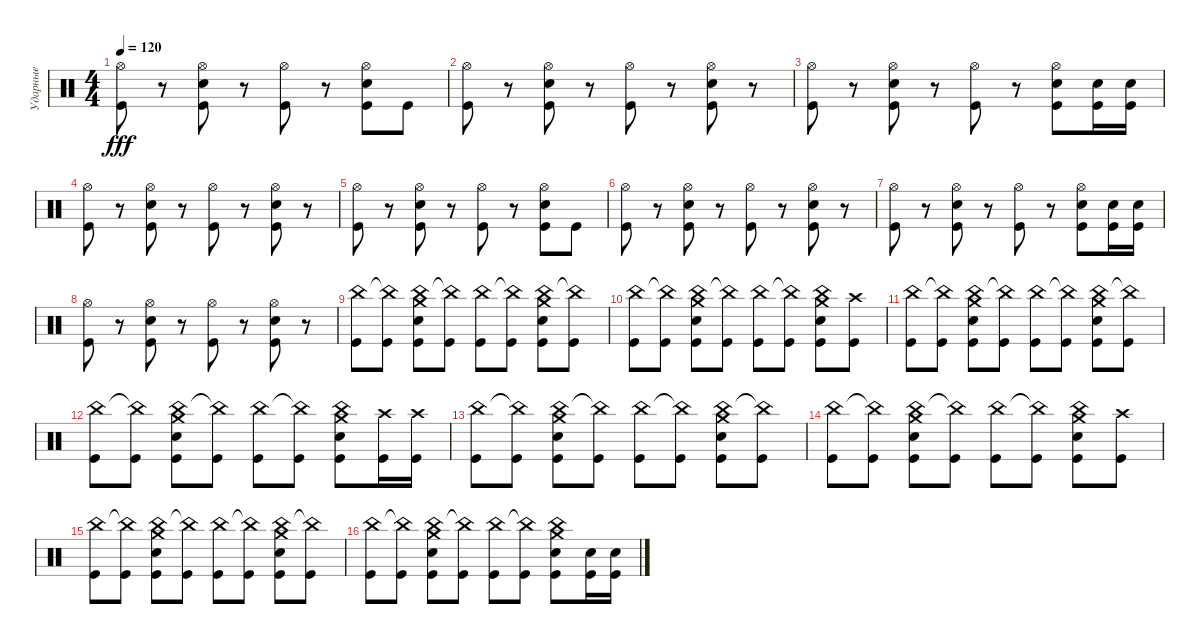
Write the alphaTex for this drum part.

\track ("Ударные" "Ударные") {instrument percussion}
\staff {score}
\articulation defaults
\ts (4 4)
\tempo 120
\clef neutral
\ks c
("Hi-Hat (open)" "Kick (hit)").8{dy fff} r.8 ("Hi-Hat (open)" "Snare (hit) 2" "Kick (hit)").8 r.8 ("Hi-Hat (open)" "Kick (hit)").8 r.8 ("Hi-Hat (open)" "Snare (hit) 2" "Kick (hit)").8 "Kick (hit)".8 |
("Hi-Hat (open)" "Kick (hit)").8 r.8 ("Hi-Hat (open)" "Snare (hit) 2" "Kick (hit)").8 r.8 ("Hi-Hat (open)" "Kick (hit)").8 r.8 ("Hi-Hat (open)" "Snare (hit) 2" "Kick (hit)").8 r.8 |
("Hi-Hat (open)" "Kick (hit)").8 r.8 ("Hi-Hat (open)" "Snare (hit) 2" "Kick (hit)").8 r.8 ("Hi-Hat (open)" "Kick (hit)").8 r.8 ("Hi-Hat (open)" "Snare (hit) 2" "Kick (hit)").8 ("Snare (hit) 2" "Kick (hit)").16 ("Snare (hit) 2" "Kick (hit)").16 |
("Hi-Hat (open)" "Kick (hit)").8 r.8 ("Hi-Hat (open)" "Snare (hit) 2" "Kick (hit)").8 r.8 ("Hi-Hat (open)" "Kick (hit)").8 r.8 ("Hi-Hat (open)" "Snare (hit) 2" "Kick (hit)").8 r.8 |
("Hi-Hat (open)" "Kick (hit)").8 r.8 ("Hi-Hat (open)" "Snare (hit) 2" "Kick (hit)").8 r.8 ("Hi-Hat (open)" "Kick (hit)").8 r.8 ("Hi-Hat (open)" "Snare (hit) 2" "Kick (hit)").8 "Kick (hit)".8 |
("Hi-Hat (open)" "Kick (hit)").8 r.8 ("Hi-Hat (open)" "Snare (hit) 2" "Kick (hit)").8 r.8 ("Hi-Hat (open)" "Kick (hit)").8 r.8 ("Hi-Hat (open)" "Snare (hit) 2" "Kick (hit)").8 r.8 |
("Hi-Hat (open)" "Kick (hit)").8 r.8 ("Hi-Hat (open)" "Snare (hit) 2" "Kick (hit)").8 r.8 ("Hi-Hat (open)" "Kick (hit)").8 r.8 ("Hi-Hat (open)" "Snare (hit) 2" "Kick (hit)").8 ("Snare (hit) 2" "Kick (hit)").16 ("Snare (hit) 2" "Kick (hit)").16 |
("Hi-Hat (open)" "Kick (hit)").8 r.8 ("Hi-Hat (open)" "Snare (hit) 2" "Kick (hit)").8 r.8 ("Hi-Hat (open)" "Kick (hit)").8 r.8 ("Hi-Hat (open)" "Snare (hit) 2" "Kick (hit)").8 r.8 |
("China (hit)" "Kick (hit)").8 ("China (hit)"{t} "Kick (hit)").8 ("China (hit)" "Crash medium (hit)" "Snare (hit) 2" "Kick (hit)").8 ("China (hit)"{t} "Kick (hit)").8 ("China (hit)" "Kick (hit)").8 ("China (hit)"{t} "Kick (hit)").8 ("China (hit)" "Crash medium (hit)" "Snare (hit) 2" "Kick (hit)").8 ("China (hit)"{t} "Kick (hit)").8 |
("China (hit)" "Kick (hit)").8 ("China (hit)"{t} "Kick (hit)").8 ("China (hit)" "Crash medium (hit)" "Snare (hit) 2" "Kick (hit)").8 ("China (hit)"{t} "Kick (hit)").8 ("China (hit)" "Kick (hit)").8 ("China (hit)"{t} "Kick (hit)").8 ("China (hit)" "Crash medium (hit)" "Snare (hit) 2" "Kick (hit)").8 ("Crash high (hit)" "Kick (hit)").8 |
("China (hit)" "Kick (hit)").8 ("China (hit)"{t} "Kick (hit)").8 ("China (hit)" "Crash medium (hit)" "Snare (hit) 2" "Kick (hit)").8 ("China (hit)"{t} "Kick (hit)").8 ("China (hit)" "Kick (hit)").8 ("China (hit)"{t} "Kick (hit)").8 ("China (hit)" "Crash medium (hit)" "Snare (hit) 2" "Kick (hit)").8 ("China (hit)"{t} "Kick (hit)").8 |
("China (hit)" "Kick (hit)").8 ("China (hit)"{t} "Kick (hit)").8 ("China (hit)" "Crash medium (hit)" "Snare (hit) 2" "Kick (hit)").8 ("China (hit)"{t} "Kick (hit)").8 ("China (hit)" "Kick (hit)").8 ("China (hit)"{t} "Kick (hit)").8 ("China (hit)" "Crash medium (hit)" "Snare (hit) 2" "Kick (hit)").8 ("Crash high (hit)" "Kick (hit)").16 ("Crash high (hit)" "Kick (hit)").16 |
("China (hit)" "Kick (hit)").8 ("China (hit)"{t} "Kick (hit)").8 ("China (hit)" "Crash medium (hit)" "Snare (hit) 2" "Kick (hit)").8 ("China (hit)"{t} "Kick (hit)").8 ("China (hit)" "Kick (hit)").8 ("China (hit)"{t} "Kick (hit)").8 ("China (hit)" "Crash medium (hit)" "Snare (hit) 2" "Kick (hit)").8 ("China (hit)"{t} "Kick (hit)").8 |
("China (hit)" "Kick (hit)").8 ("China (hit)"{t} "Kick (hit)").8 ("China (hit)" "Crash medium (hit)" "Snare (hit) 2" "Kick (hit)").8 ("China (hit)"{t} "Kick (hit)").8 ("China (hit)" "Kick (hit)").8 ("China (hit)"{t} "Kick (hit)").8 ("China (hit)" "Crash medium (hit)" "Snare (hit) 2" "Kick (hit)").8 ("Crash high (hit)" "Kick (hit)").8 |
("China (hit)" "Kick (hit)").8 ("China (hit)"{t} "Kick (hit)").8 ("China (hit)" "Crash medium (hit)" "Snare (hit) 2" "Kick (hit)").8 ("China (hit)"{t} "Kick (hit)").8 ("China (hit)" "Kick (hit)").8 ("China (hit)"{t} "Kick (hit)").8 ("China (hit)" "Crash medium (hit)" "Snare (hit) 2" "Kick (hit)").8 ("China (hit)"{t} "Kick (hit)").8 |
("China (hit)" "Kick (hit)").8 ("China (hit)"{t} "Kick (hit)").8 ("China (hit)" "Crash medium (hit)" "Snare (hit) 2" "Kick (hit)").8 ("China (hit)"{t} "Kick (hit)").8 ("China (hit)" "Kick (hit)").8 ("China (hit)"{t} "Kick (hit)").8 ("China (hit)" "Crash medium (hit)" "Snare (hit) 2" "Kick (hit)").8 ("Snare (hit) 2" "Kick (hit)").16 ("Snare (hit) 2" "Kick (hit)").16
